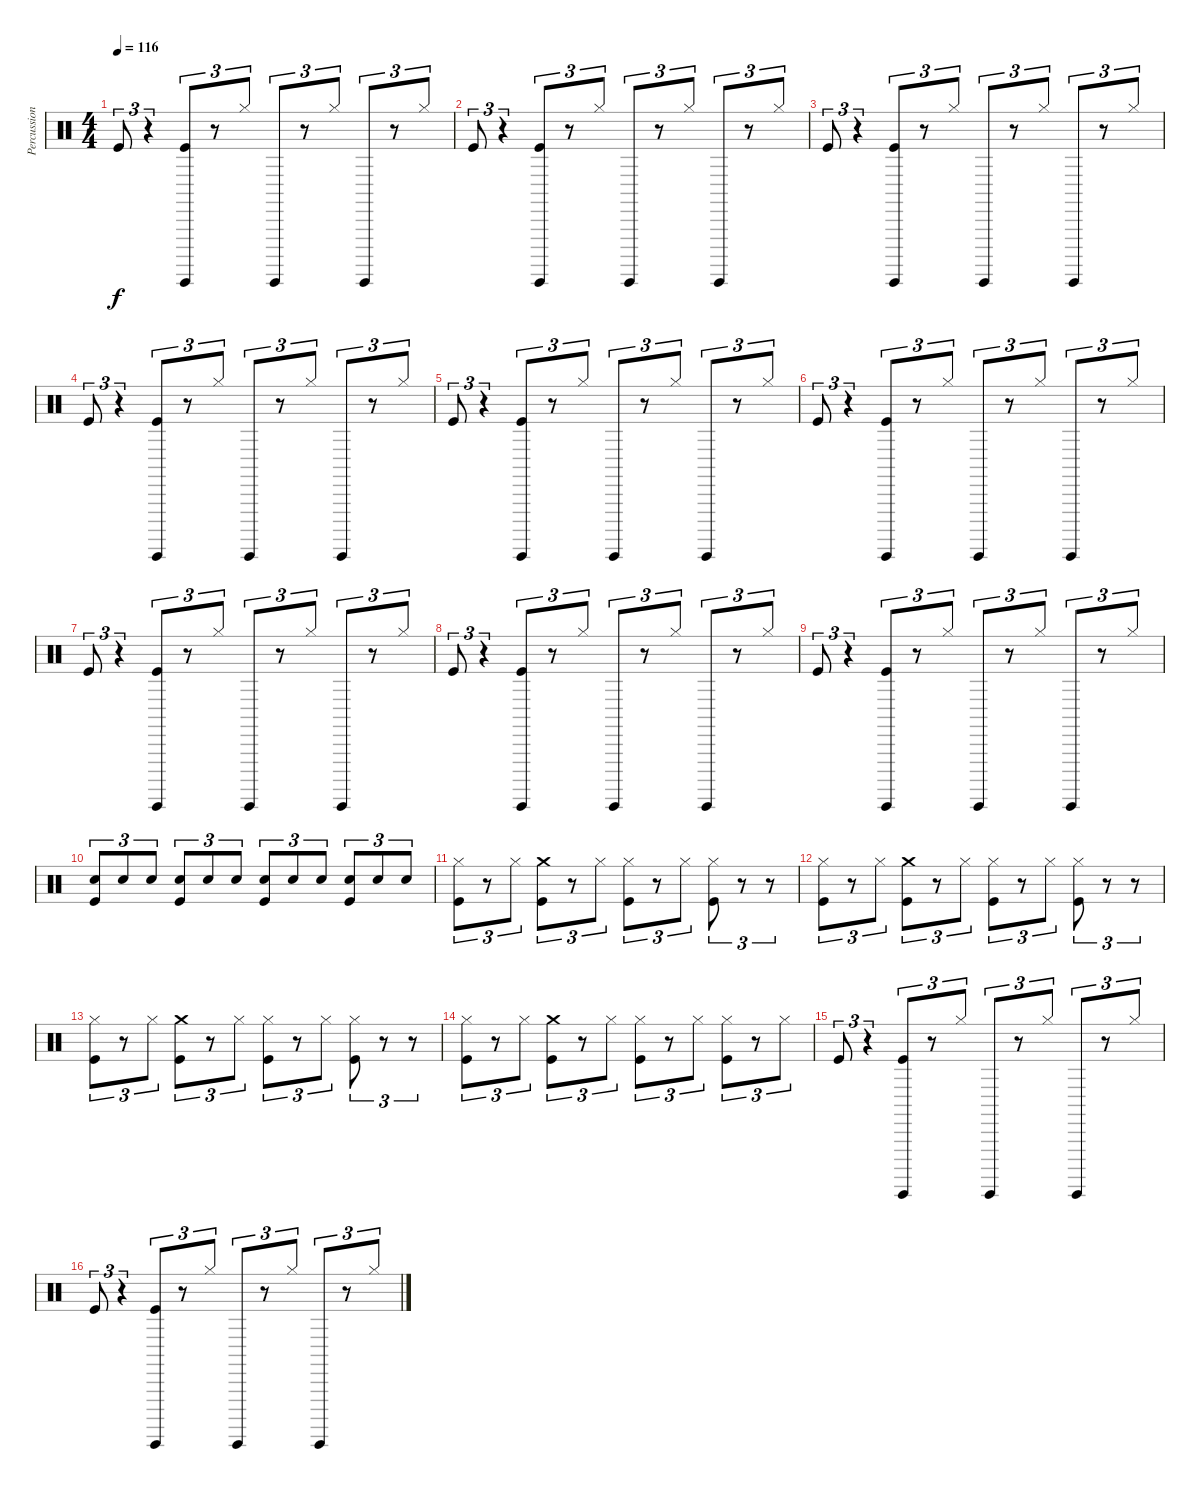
\track ("Percussions" "Percussion") {instrument percussion}
\staff {score}
\articulation defaults
\ts (4 4)
\tempo 116
\clef neutral
\ks c "Kick (hit)".8{tu (3 2) dy f}
r.4{tu (3 2)} ("Guiro (hit)" "Kick (hit)").8{tu (3 2)} r.8{tu (3 2)} "Hi-Hat (closed)".8{tu (3 2)} "Guiro (hit)".8{tu (3 2)} r.8{tu (3 2)} "Hi-Hat (closed)".8{tu (3 2)} "Guiro (hit)".8{tu (3 2)} r.8{tu (3 2)} "Hi-Hat (closed)".8{tu (3 2)} |
"Kick (hit)".8{tu (3 2)} r.4{tu (3 2)} ("Guiro (hit)" "Kick (hit)").8{tu (3 2)} r.8{tu (3 2)} "Hi-Hat (closed)".8{tu (3 2)} "Guiro (hit)".8{tu (3 2)} r.8{tu (3 2)} "Hi-Hat (closed)".8{tu (3 2)} "Guiro (hit)".8{tu (3 2)} r.8{tu (3 2)} "Hi-Hat (closed)".8{tu (3 2)} |
"Kick (hit)".8{tu (3 2)} r.4{tu (3 2)} ("Guiro (hit)" "Kick (hit)").8{tu (3 2)} r.8{tu (3 2)} "Hi-Hat (closed)".8{tu (3 2)} "Guiro (hit)".8{tu (3 2)} r.8{tu (3 2)} "Hi-Hat (closed)".8{tu (3 2)} "Guiro (hit)".8{tu (3 2)} r.8{tu (3 2)} "Hi-Hat (closed)".8{tu (3 2)} |
"Kick (hit)".8{tu (3 2)} r.4{tu (3 2)} ("Guiro (hit)" "Kick (hit)").8{tu (3 2)} r.8{tu (3 2)} "Hi-Hat (closed)".8{tu (3 2)} "Guiro (hit)".8{tu (3 2)} r.8{tu (3 2)} "Hi-Hat (closed)".8{tu (3 2)} "Guiro (hit)".8{tu (3 2)} r.8{tu (3 2)} "Hi-Hat (closed)".8{tu (3 2)} |
"Kick (hit)".8{tu (3 2)} r.4{tu (3 2)} ("Guiro (hit)" "Kick (hit)").8{tu (3 2)} r.8{tu (3 2)} "Hi-Hat (closed)".8{tu (3 2)} "Guiro (hit)".8{tu (3 2)} r.8{tu (3 2)} "Hi-Hat (closed)".8{tu (3 2)} "Guiro (hit)".8{tu (3 2)} r.8{tu (3 2)} "Hi-Hat (closed)".8{tu (3 2)} |
"Kick (hit)".8{tu (3 2)} r.4{tu (3 2)} ("Guiro (hit)" "Kick (hit)").8{tu (3 2)} r.8{tu (3 2)} "Hi-Hat (closed)".8{tu (3 2)} "Guiro (hit)".8{tu (3 2)} r.8{tu (3 2)} "Hi-Hat (closed)".8{tu (3 2)} "Guiro (hit)".8{tu (3 2)} r.8{tu (3 2)} "Hi-Hat (closed)".8{tu (3 2)} |
"Kick (hit)".8{tu (3 2)} r.4{tu (3 2)} ("Guiro (hit)" "Kick (hit)").8{tu (3 2)} r.8{tu (3 2)} "Hi-Hat (closed)".8{tu (3 2)} "Guiro (hit)".8{tu (3 2)} r.8{tu (3 2)} "Hi-Hat (closed)".8{tu (3 2)} "Guiro (hit)".8{tu (3 2)} r.8{tu (3 2)} "Hi-Hat (closed)".8{tu (3 2)} |
"Kick (hit)".8{tu (3 2)} r.4{tu (3 2)} ("Guiro (hit)" "Kick (hit)").8{tu (3 2)} r.8{tu (3 2)} "Hi-Hat (closed)".8{tu (3 2)} "Guiro (hit)".8{tu (3 2)} r.8{tu (3 2)} "Hi-Hat (closed)".8{tu (3 2)} "Guiro (hit)".8{tu (3 2)} r.8{tu (3 2)} "Hi-Hat (closed)".8{tu (3 2)} |
"Kick (hit)".8{tu (3 2)} r.4{tu (3 2)} ("Guiro (hit)" "Kick (hit)").8{tu (3 2)} r.8{tu (3 2)} "Hi-Hat (closed)".8{tu (3 2)} "Guiro (hit)".8{tu (3 2)} r.8{tu (3 2)} "Hi-Hat (closed)".8{tu (3 2)} "Guiro (hit)".8{tu (3 2)} r.8{tu (3 2)} "Hi-Hat (closed)".8{tu (3 2)} |
("Snare (hit) 2" "Kick (hit)").8{tu (3 2) volume 6} "Snare (hit) 2".8{tu (3 2)} "Snare (hit) 2".8{tu (3 2)} ("Snare (hit) 2" "Kick (hit)").8{tu (3 2)} "Snare (hit) 2".8{tu (3 2)} "Snare (hit) 2".8{tu (3 2)} ("Snare (hit) 2" "Kick (hit)").8{tu (3 2)} "Snare (hit) 2".8{tu (3 2)} "Snare (hit) 2".8{tu (3 2)} ("Snare (hit) 2" "Kick (hit)").8{tu (3 2)} "Snare (hit) 2".8{tu (3 2)} "Snare (hit) 2".8{tu (3 2) volume 13} |
("Hi-Hat (closed)" "Kick (hit)").8{tu (3 2) volume 14} r.8{tu (3 2)} "Hi-Hat (closed)".8{tu (3 2)} ("Crash medium (hit)" "Kick (hit)").8{tu (3 2)} r.8{tu (3 2)} "Hi-Hat (closed)".8{tu (3 2)} ("Hi-Hat (closed)" "Kick (hit)").8{tu (3 2)} r.8{tu (3 2)} "Hi-Hat (closed)".8{tu (3 2)} ("Hi-Hat (closed)" "Kick (hit)").8{tu (3 2)} r.8{tu (3 2)} r.8{tu (3 2)} |
("Hi-Hat (closed)" "Kick (hit)").8{tu (3 2) volume 14} r.8{tu (3 2)} "Hi-Hat (closed)".8{tu (3 2)} ("Crash medium (hit)" "Kick (hit)").8{tu (3 2)} r.8{tu (3 2)} "Hi-Hat (closed)".8{tu (3 2)} ("Hi-Hat (closed)" "Kick (hit)").8{tu (3 2)} r.8{tu (3 2)} "Hi-Hat (closed)".8{tu (3 2)} ("Hi-Hat (closed)" "Kick (hit)").8{tu (3 2)} r.8{tu (3 2)} r.8{tu (3 2)} |
("Hi-Hat (closed)" "Kick (hit)").8{tu (3 2) volume 14} r.8{tu (3 2)} "Hi-Hat (closed)".8{tu (3 2)} ("Crash medium (hit)" "Kick (hit)").8{tu (3 2)} r.8{tu (3 2)} "Hi-Hat (closed)".8{tu (3 2)} ("Hi-Hat (closed)" "Kick (hit)").8{tu (3 2)} r.8{tu (3 2)} "Hi-Hat (closed)".8{tu (3 2)} ("Hi-Hat (closed)" "Kick (hit)").8{tu (3 2)} r.8{tu (3 2)} r.8{tu (3 2)} |
("Hi-Hat (closed)" "Kick (hit)").8{tu (3 2) volume 14} r.8{tu (3 2)} "Hi-Hat (closed)".8{tu (3 2)} ("Crash medium (hit)" "Kick (hit)").8{tu (3 2)} r.8{tu (3 2)} "Hi-Hat (closed)".8{tu (3 2)} ("Hi-Hat (closed)" "Kick (hit)").8{tu (3 2)} r.8{tu (3 2)} "Hi-Hat (closed)".8{tu (3 2)} ("Hi-Hat (closed)" "Kick (hit)").8{tu (3 2)} r.8{tu (3 2)} "Hi-Hat (closed)".8{tu (3 2)} |
"Kick (hit)".8{tu (3 2)} r.4{tu (3 2)} ("Guiro (hit)" "Kick (hit)").8{tu (3 2)} r.8{tu (3 2)} "Hi-Hat (closed)".8{tu (3 2)} "Guiro (hit)".8{tu (3 2)} r.8{tu (3 2)} "Hi-Hat (closed)".8{tu (3 2)} "Guiro (hit)".8{tu (3 2)} r.8{tu (3 2)} "Hi-Hat (closed)".8{tu (3 2)} |
"Kick (hit)".8{tu (3 2)} r.4{tu (3 2)} ("Guiro (hit)" "Kick (hit)").8{tu (3 2)} r.8{tu (3 2)} "Hi-Hat (closed)".8{tu (3 2)} "Guiro (hit)".8{tu (3 2)} r.8{tu (3 2)} "Hi-Hat (closed)".8{tu (3 2)} "Guiro (hit)".8{tu (3 2)} r.8{tu (3 2)} "Hi-Hat (closed)".8{tu (3 2)}
